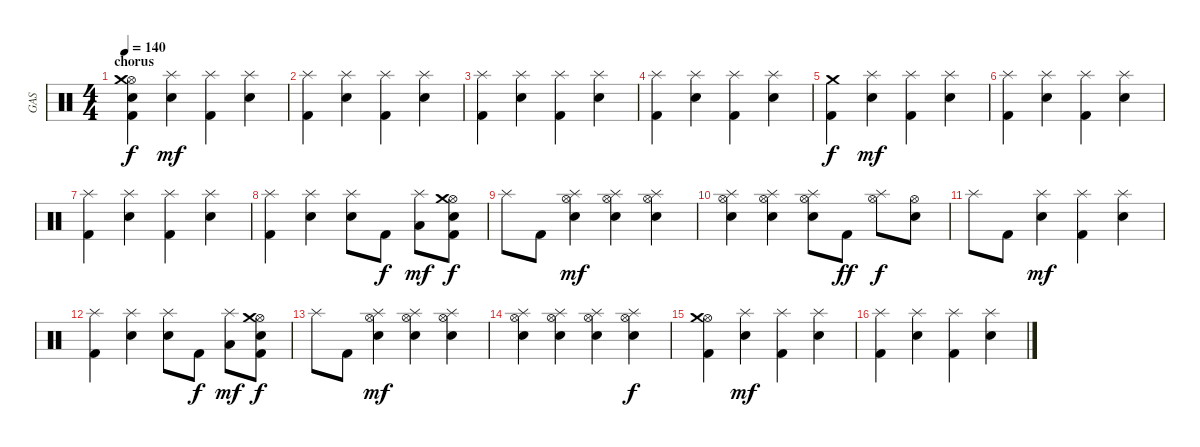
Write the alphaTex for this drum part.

\track ("GAS" "GAS") {instrument percussion}
\staff {score}
\articulation defaults
\ts (4 4)
\section ("" "chorus")
\tempo 140
\clef neutral
\ks c
("Kick (hit) 2" "Electric Snare (hit)" "Hi-Hat (open)" "Crash medium (hit)").4{dy f} ("Electric Snare (hit)" "Splash (hit)").4{dy mf} ("Kick (hit) 2" "Splash (hit)").4 ("Electric Snare (hit)" "Splash (hit)").4 |
("Kick (hit) 2" "Splash (hit)").4 ("Electric Snare (hit)" "Splash (hit)").4 ("Kick (hit) 2" "Splash (hit)").4 ("Electric Snare (hit)" "Splash (hit)").4 |
("Kick (hit) 2" "Splash (hit)").4 ("Electric Snare (hit)" "Splash (hit)").4 ("Kick (hit) 2" "Splash (hit)").4 ("Electric Snare (hit)" "Splash (hit)").4 |
("Kick (hit) 2" "Splash (hit)").4 ("Electric Snare (hit)" "Splash (hit)").4 ("Kick (hit) 2" "Splash (hit)").4 ("Electric Snare (hit)" "Splash (hit)").4 |
("Kick (hit) 2" "Crash medium (hit)").4{dy f} ("Electric Snare (hit)" "Splash (hit)").4{dy mf} ("Kick (hit) 2" "Splash (hit)").4 ("Electric Snare (hit)" "Splash (hit)").4 |
("Kick (hit) 2" "Splash (hit)").4 ("Electric Snare (hit)" "Splash (hit)").4 ("Kick (hit) 2" "Splash (hit)").4 ("Electric Snare (hit)" "Splash (hit)").4 |
("Kick (hit) 2" "Splash (hit)").4 ("Electric Snare (hit)" "Splash (hit)").4 ("Kick (hit) 2" "Splash (hit)").4 ("Electric Snare (hit)" "Splash (hit)").4 |
("Kick (hit) 2" "Splash (hit)").4 ("Electric Snare (hit)" "Splash (hit)").4 ("Electric Snare (hit)" "Splash (hit)").8 "Kick (hit) 2".8{dy f} ("Low Tom (hit)" "Splash (hit)").8{dy mf} ("Kick (hit) 2" "Electric Snare (hit)" "Hi-Hat (open)" "Crash medium (hit)").8{dy f} |
"Splash (hit)".8 "Kick (hit) 2".8 ("Electric Snare (hit)" "Hi-Hat (open)" "Splash (hit)").4{dy mf} ("Electric Snare (hit)" "Hi-Hat (open)" "Splash (hit)").4 ("Electric Snare (hit)" "Hi-Hat (open)" "Splash (hit)").4 |
("Electric Snare (hit)" "Hi-Hat (open)" "Splash (hit)").4 ("Electric Snare (hit)" "Hi-Hat (open)" "Splash (hit)").4 ("Electric Snare (hit)" "Hi-Hat (open)" "Splash (hit)").8 "Kick (hit) 2".8{dy ff} ("Hi-Hat (open)" "Splash (hit)").8{dy f} ("Electric Snare (hit)" "Hi-Hat (open)").8 |
"Splash (hit)".8 "Kick (hit) 2".8 ("Electric Snare (hit)" "Splash (hit)").4{dy mf} ("Kick (hit) 2" "Splash (hit)").4 ("Electric Snare (hit)" "Splash (hit)").4 |
("Kick (hit) 2" "Splash (hit)").4 ("Electric Snare (hit)" "Splash (hit)").4 ("Electric Snare (hit)" "Splash (hit)").8 "Kick (hit) 2".8{dy f} ("Low Tom (hit)" "Splash (hit)").8{dy mf} ("Kick (hit) 2" "Electric Snare (hit)" "Hi-Hat (open)" "Crash medium (hit)").8{dy f} |
"Splash (hit)".8 "Kick (hit) 2".8 ("Electric Snare (hit)" "Hi-Hat (open)" "Splash (hit)").4{dy mf} ("Electric Snare (hit)" "Hi-Hat (open)" "Splash (hit)").4 ("Electric Snare (hit)" "Hi-Hat (open)" "Splash (hit)").4 |
("Electric Snare (hit)" "Hi-Hat (open)" "Splash (hit)").4 ("Electric Snare (hit)" "Hi-Hat (open)" "Splash (hit)").4 ("Electric Snare (hit)" "Hi-Hat (open)" "Splash (hit)").4 ("Electric Snare (hit)" "Hi-Hat (open)" "Splash (hit)").4{dy f} |
("Kick (hit) 2" "Hi-Hat (open)" "Crash medium (hit)").4 ("Electric Snare (hit)" "Splash (hit)").4{dy mf} ("Kick (hit) 2" "Splash (hit)").4 ("Electric Snare (hit)" "Splash (hit)").4 |
("Kick (hit) 2" "Splash (hit)").4 ("Electric Snare (hit)" "Splash (hit)").4 ("Kick (hit) 2" "Splash (hit)").4 ("Electric Snare (hit)" "Splash (hit)").4
